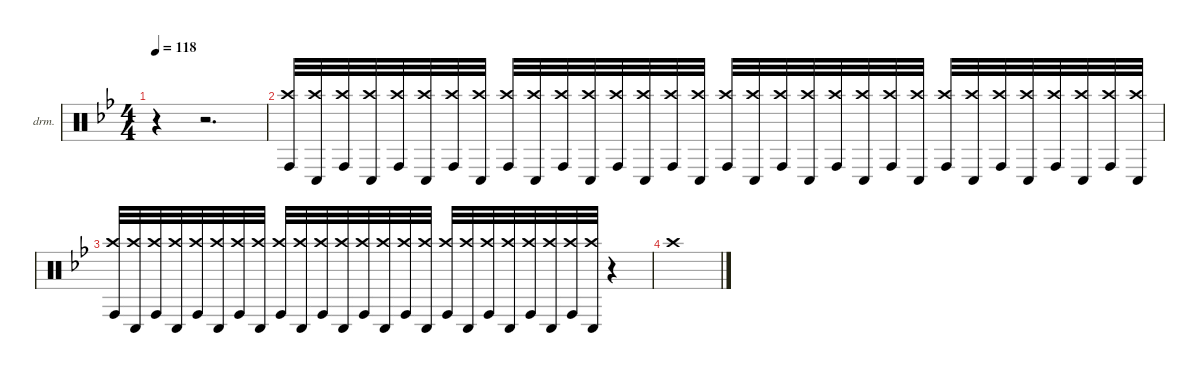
\defaultSystemsLayout 4
\hideDynamics
\bracketExtendMode nobrackets
\firstSystemTrackNameOrientation horizontal
\otherSystemsTrackNameOrientation horizontal
\track ("Percussion" "drm.") {instrument percussion}
\staff {score}
\articulation defaults
\ts (4 4)
\tempo 118
\clef neutral
\ks gminor
r.4{dy f} r.2{d} |
("Conga high (hit)"{acc forcenatural} "Crash high (hit)"{acc forcenatural}).32 ("Conga low (hit)"{acc forcenatural} "Crash high (hit)"{acc forcenatural}).32 ("Conga high (hit)"{acc forcenatural} "Crash high (hit)"{acc forcenatural}).32 ("Conga low (hit)"{acc forcenatural} "Crash high (hit)"{acc forcenatural}).32 ("Conga high (hit)"{acc forcenatural} "Crash high (hit)"{acc forcenatural}).32 ("Conga low (hit)"{acc forcenatural} "Crash high (hit)"{acc forcenatural}).32 ("Conga high (hit)"{acc forcenatural} "Crash high (hit)"{acc forcenatural}).32 ("Conga low (hit)"{acc forcenatural} "Crash high (hit)"{acc forcenatural}).32 ("Conga high (hit)"{acc forcenatural} "Crash high (hit)"{acc forcenatural}).32 ("Conga low (hit)"{acc forcenatural} "Crash high (hit)"{acc forcenatural}).32 ("Conga high (hit)"{acc forcenatural} "Crash high (hit)"{acc forcenatural}).32 ("Conga low (hit)"{acc forcenatural} "Crash high (hit)"{acc forcenatural}).32 ("Conga high (hit)"{acc forcenatural} "Crash high (hit)"{acc forcenatural}).32 ("Conga low (hit)"{acc forcenatural} "Crash high (hit)"{acc forcenatural}).32 ("Conga high (hit)"{acc forcenatural} "Crash high (hit)"{acc forcenatural}).32 ("Conga low (hit)"{acc forcenatural} "Crash high (hit)"{acc forcenatural}).32 ("Conga high (hit)"{acc forcenatural} "Crash high (hit)"{acc forcenatural}).32 ("Conga low (hit)"{acc forcenatural} "Crash high (hit)"{acc forcenatural}).32 ("Conga high (hit)"{acc forcenatural} "Crash high (hit)"{acc forcenatural}).32 ("Conga low (hit)"{acc forcenatural} "Crash high (hit)"{acc forcenatural}).32 ("Conga high (hit)"{acc forcenatural} "Crash high (hit)"{acc forcenatural}).32 ("Conga low (hit)"{acc forcenatural} "Crash high (hit)"{acc forcenatural}).32 ("Conga high (hit)"{acc forcenatural} "Crash high (hit)"{acc forcenatural}).32 ("Conga low (hit)"{acc forcenatural} "Crash high (hit)"{acc forcenatural}).32 ("Conga high (hit)"{acc forcenatural} "Crash high (hit)"{acc forcenatural}).32 ("Conga low (hit)"{acc forcenatural} "Crash high (hit)"{acc forcenatural}).32 ("Conga high (hit)"{acc forcenatural} "Crash high (hit)"{acc forcenatural}).32 ("Conga low (hit)"{acc forcenatural} "Crash high (hit)"{acc forcenatural}).32 ("Conga high (hit)"{acc forcenatural} "Crash high (hit)"{acc forcenatural}).32 ("Conga low (hit)"{acc forcenatural} "Crash high (hit)"{acc forcenatural}).32 ("Conga high (hit)"{acc forcenatural} "Crash high (hit)"{acc forcenatural}).32 ("Conga low (hit)"{acc forcenatural} "Crash high (hit)"{acc forcenatural}).32 |
("Conga high (hit)"{acc forcenatural} "Crash high (hit)"{acc forcenatural}).32 ("Conga low (hit)"{acc forcenatural} "Crash high (hit)"{acc forcenatural}).32 ("Conga high (hit)"{acc forcenatural} "Crash high (hit)"{acc forcenatural}).32 ("Conga low (hit)"{acc forcenatural} "Crash high (hit)"{acc forcenatural}).32 ("Conga high (hit)"{acc forcenatural} "Crash high (hit)"{acc forcenatural}).32 ("Conga low (hit)"{acc forcenatural} "Crash high (hit)"{acc forcenatural}).32 ("Conga high (hit)"{acc forcenatural} "Crash high (hit)"{acc forcenatural}).32 ("Conga low (hit)"{acc forcenatural} "Crash high (hit)"{acc forcenatural}).32 ("Conga high (hit)"{acc forcenatural} "Crash high (hit)"{acc forcenatural}).32 ("Conga low (hit)"{acc forcenatural} "Crash high (hit)"{acc forcenatural}).32 ("Conga high (hit)"{acc forcenatural} "Crash high (hit)"{acc forcenatural}).32 ("Conga low (hit)"{acc forcenatural} "Crash high (hit)"{acc forcenatural}).32 ("Conga high (hit)"{acc forcenatural} "Crash high (hit)"{acc forcenatural}).32 ("Conga low (hit)"{acc forcenatural} "Crash high (hit)"{acc forcenatural}).32 ("Conga high (hit)"{acc forcenatural} "Crash high (hit)"{acc forcenatural}).32 ("Conga low (hit)"{acc forcenatural} "Crash high (hit)"{acc forcenatural}).32 ("Conga high (hit)"{acc forcenatural} "Crash high (hit)"{acc forcenatural}).32 ("Conga low (hit)"{acc forcenatural} "Crash high (hit)"{acc forcenatural}).32 ("Conga high (hit)"{acc forcenatural} "Crash high (hit)"{acc forcenatural}).32 ("Conga low (hit)"{acc forcenatural} "Crash high (hit)"{acc forcenatural}).32 ("Conga high (hit)"{acc forcenatural} "Crash high (hit)"{acc forcenatural}).32 ("Conga low (hit)"{acc forcenatural} "Crash high (hit)"{acc forcenatural}).32 ("Conga high (hit)"{acc forcenatural} "Crash high (hit)"{acc forcenatural}).32 ("Conga low (hit)"{acc forcenatural} "Crash high (hit)"{acc forcenatural}).32 r.4 |
"Crash high (hit)"{acc forcenatural}.1
